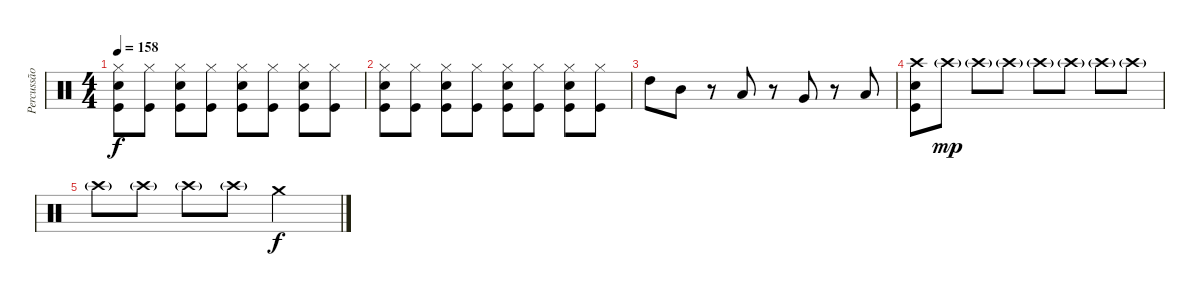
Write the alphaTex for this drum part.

\track ("Percussão" "Percussão") {instrument percussion}
\staff {score}
\articulation defaults
\ts (4 4)
\tempo 158
\clef neutral
\ks c
("Hi-Hat (closed)" "Electric Snare (hit)" "Kick (hit)").8{dy f} ("Hi-Hat (closed)" "Kick (hit)").8 ("Hi-Hat (closed)" "Electric Snare (hit)" "Kick (hit)").8 ("Hi-Hat (closed)" "Kick (hit)").8 ("Hi-Hat (closed)" "Electric Snare (hit)" "Kick (hit)").8 ("Hi-Hat (closed)" "Kick (hit)").8 ("Hi-Hat (closed)" "Electric Snare (hit)" "Kick (hit)").8 ("Hi-Hat (closed)" "Kick (hit)").8 |
("Hi-Hat (closed)" "Electric Snare (hit)" "Kick (hit)").8 ("Hi-Hat (closed)" "Kick (hit)").8 ("Hi-Hat (closed)" "Electric Snare (hit)" "Kick (hit)").8 ("Hi-Hat (closed)" "Kick (hit)").8 ("Hi-Hat (closed)" "Electric Snare (hit)" "Kick (hit)").8 ("Hi-Hat (closed)" "Kick (hit)").8 ("Hi-Hat (closed)" "Electric Snare (hit)" "Kick (hit)").8 ("Hi-Hat (closed)" "Kick (hit)").8 |
"High Tom (hit)".8 "Mid Tom (hit)".8 r.8 "Low Tom (hit)".8 r.8 "Very Low Tom (hit)".8 r.8 "Low Floor Tom (hit)".8 |
("Crash high (hit)" "Electric Snare (hit)" "Kick (hit)").8 "Crash high (hit)"{g}.8{dy mp} "Crash high (hit)"{g}.8 "Crash high (hit)"{g}.8 "Crash high (hit)"{g}.8 "Crash high (hit)"{g}.8 "Crash high (hit)"{g}.8 "Crash high (hit)"{g}.8 |
"Crash high (hit)"{g}.8 "Crash high (hit)"{g}.8 "Crash high (hit)"{g}.8 "Crash high (hit)"{g}.8 "Crash medium (hit)".2{dy f}
